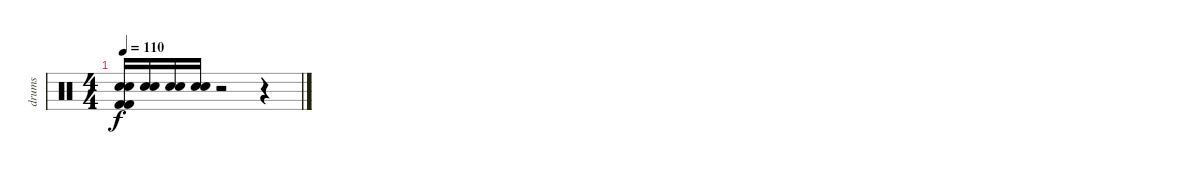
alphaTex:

\track ("drums" "drums") {instrument percussion}
\staff {score}
\articulation defaults
\ts (4 4)
\tempo 110
\clef neutral
\ks c
("Snare (hit) 2" "Snare (hit) 2" "Kick (hit) 2" "Kick (hit) 2").16{dy f} ("Snare (hit) 2" "Snare (hit) 2").16 ("Snare (hit) 2" "Snare (hit) 2").16 ("Snare (hit) 2" "Snare (hit) 2").16 r.2 r.4
